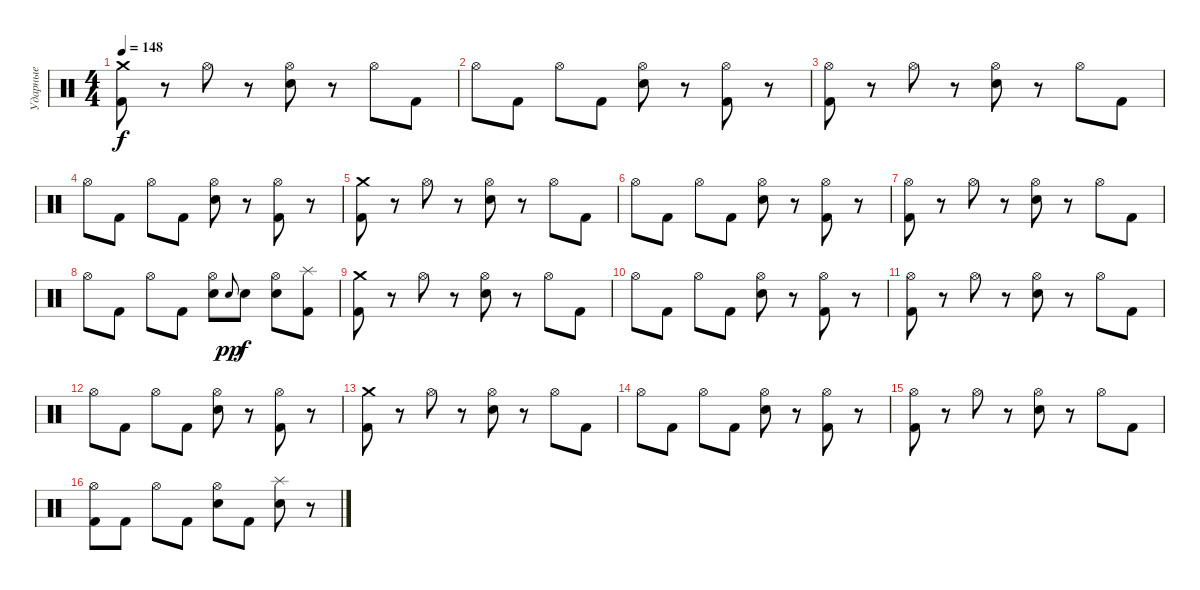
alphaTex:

\track ("Ударные" "Ударные") {instrument percussion}
\staff {score}
\articulation defaults
\ts (4 4)
\tempo 148
\clef neutral
\ks c
("Kick (hit) 2" "Crash medium (hit)").8{dy f} r.8 "Hi-Hat (open)".8 r.8 ("Electric Snare (hit)" "Hi-Hat (open)").8 r.8 "Hi-Hat (open)".8 "Kick (hit) 2".8 |
"Hi-Hat (open)".8 "Kick (hit) 2".8 "Hi-Hat (open)".8 "Kick (hit) 2".8 ("Electric Snare (hit)" "Hi-Hat (open)").8 r.8 ("Kick (hit) 2" "Hi-Hat (open)").8 r.8 |
("Kick (hit) 2" "Hi-Hat (open)").8 r.8 "Hi-Hat (open)".8 r.8 ("Electric Snare (hit)" "Hi-Hat (open)").8 r.8 "Hi-Hat (open)".8 "Kick (hit) 2".8 |
"Hi-Hat (open)".8 "Kick (hit) 2".8 "Hi-Hat (open)".8 "Kick (hit) 2".8 ("Electric Snare (hit)" "Hi-Hat (open)").8 r.8 ("Kick (hit) 2" "Hi-Hat (open)").8 r.8 |
("Kick (hit) 2" "Crash medium (hit)").8 r.8 "Hi-Hat (open)".8 r.8 ("Electric Snare (hit)" "Hi-Hat (open)").8 r.8 "Hi-Hat (open)".8 "Kick (hit) 2".8 |
"Hi-Hat (open)".8 "Kick (hit) 2".8 "Hi-Hat (open)".8 "Kick (hit) 2".8 ("Electric Snare (hit)" "Hi-Hat (open)").8 r.8 ("Kick (hit) 2" "Hi-Hat (open)").8 r.8 |
("Kick (hit) 2" "Hi-Hat (open)").8 r.8 "Hi-Hat (open)".8 r.8 ("Electric Snare (hit)" "Hi-Hat (open)").8 r.8 "Hi-Hat (open)".8 "Kick (hit) 2".8 |
"Hi-Hat (open)".8 "Kick (hit) 2".8 "Hi-Hat (open)".8 "Kick (hit) 2".8 ("Electric Snare (hit)" "Hi-Hat (open)").8 "Electric Snare (hit)".8{gr onbeat dy pp} "Electric Snare (hit)".8{dy f} ("Electric Snare (hit)" "Hi-Hat (open)").8 ("Kick (hit) 2" "Splash (hit)").8 |
("Kick (hit) 2" "Crash medium (hit)").8 r.8 "Hi-Hat (open)".8 r.8 ("Electric Snare (hit)" "Hi-Hat (open)").8 r.8 "Hi-Hat (open)".8 "Kick (hit) 2".8 |
"Hi-Hat (open)".8 "Kick (hit) 2".8 "Hi-Hat (open)".8 "Kick (hit) 2".8 ("Electric Snare (hit)" "Hi-Hat (open)").8 r.8 ("Kick (hit) 2" "Hi-Hat (open)").8 r.8 |
("Kick (hit) 2" "Hi-Hat (open)").8 r.8 "Hi-Hat (open)".8 r.8 ("Electric Snare (hit)" "Hi-Hat (open)").8 r.8 "Hi-Hat (open)".8 "Kick (hit) 2".8 |
"Hi-Hat (open)".8 "Kick (hit) 2".8 "Hi-Hat (open)".8 "Kick (hit) 2".8 ("Electric Snare (hit)" "Hi-Hat (open)").8 r.8 ("Kick (hit) 2" "Hi-Hat (open)").8 r.8 |
("Kick (hit) 2" "Crash medium (hit)").8 r.8 "Hi-Hat (open)".8 r.8 ("Electric Snare (hit)" "Hi-Hat (open)").8 r.8 "Hi-Hat (open)".8 "Kick (hit) 2".8 |
"Hi-Hat (open)".8 "Kick (hit) 2".8 "Hi-Hat (open)".8 "Kick (hit) 2".8 ("Electric Snare (hit)" "Hi-Hat (open)").8 r.8 ("Kick (hit) 2" "Hi-Hat (open)").8 r.8 |
("Kick (hit) 2" "Hi-Hat (open)").8 r.8 "Hi-Hat (open)".8 r.8 ("Electric Snare (hit)" "Hi-Hat (open)").8 r.8 "Hi-Hat (open)".8 "Kick (hit) 2".8 |
("Kick (hit) 2" "Hi-Hat (open)").8 "Kick (hit) 2".8 "Hi-Hat (open)".8 "Kick (hit) 2".8 ("Electric Snare (hit)" "Hi-Hat (open)").8 "Kick (hit) 2".8 ("Electric Snare (hit)" "Splash (hit)").8 r.8
